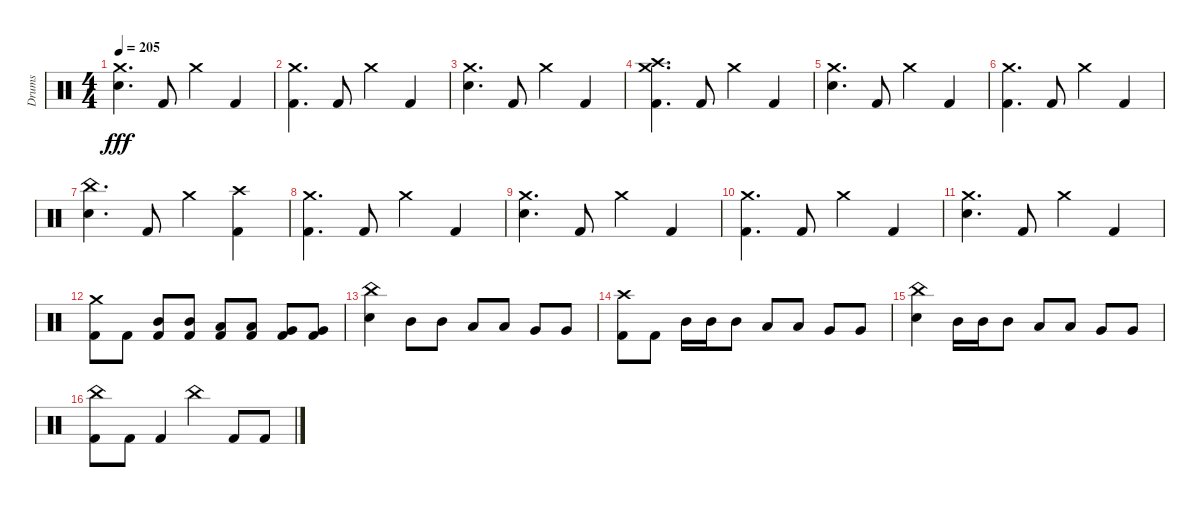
\track ("Drums" "Drums") {instrument percussion}
\staff {score}
\articulation defaults
\ts (4 4)
\tempo 205
\clef neutral
\ks c
("Crash medium (hit)" "Snare (hit) 2").4{d dy fff} "Kick (hit) 2".8 "Crash medium (hit)".4 "Kick (hit) 2".4 |
("Crash medium (hit)" "Kick (hit) 2").4{d} "Kick (hit) 2".8 "Crash medium (hit)".4 "Kick (hit) 2".4 |
("Crash medium (hit)" "Snare (hit) 2").4{d} "Kick (hit) 2".8 "Crash medium (hit)".4 "Kick (hit) 2".4 |
("Crash medium (hit)" "Crash high (hit)" "Kick (hit) 2").4{d} "Kick (hit) 2".8 "Crash medium (hit)".4 "Kick (hit) 2".4 |
("Crash medium (hit)" "Snare (hit) 2").4{d} "Kick (hit) 2".8 "Crash medium (hit)".4 "Kick (hit) 2".4 |
("Crash medium (hit)" "Kick (hit) 2").4{d} "Kick (hit) 2".8 "Crash medium (hit)".4 "Kick (hit) 2".4 |
("China (hit)" "Snare (hit) 2").4{d} "Kick (hit) 2".8 "Crash medium (hit)".4 ("Crash high (hit)" "Kick (hit) 2").4 |
("Crash medium (hit)" "Kick (hit) 2").4{d} "Kick (hit) 2".8 "Crash medium (hit)".4 "Kick (hit) 2".4 |
("Crash medium (hit)" "Snare (hit) 2").4{d} "Kick (hit) 2".8 "Crash medium (hit)".4 "Kick (hit) 2".4 |
("Crash medium (hit)" "Kick (hit) 2").4{d} "Kick (hit) 2".8 "Crash medium (hit)".4 "Kick (hit) 2".4 |
("Crash medium (hit)" "Snare (hit) 2").4{d} "Kick (hit) 2".8 "Crash medium (hit)".4 "Kick (hit) 2".4 |
("Crash medium (hit)" "Kick (hit) 2").8 "Kick (hit) 2".8 ("Mid Tom (hit)" "Kick (hit) 2").8 ("Mid Tom (hit)" "Kick (hit) 2").8 ("Low Tom (hit)" "Kick (hit) 2").8 ("Low Tom (hit)" "Kick (hit) 2").8 ("Very Low Tom (hit)" "Kick (hit) 2").8 ("Very Low Tom (hit)" "Kick (hit) 2").8 |
("China (hit)" "Snare (hit) 2").4 "Mid Tom (hit)".8 "Mid Tom (hit)".8 "Low Tom (hit)".8 "Low Tom (hit)".8 "Very Low Tom (hit)".8 "Very Low Tom (hit)".8 |
("Crash high (hit)" "Kick (hit) 2").8 "Kick (hit) 2".8 "Mid Tom (hit)".16 "Mid Tom (hit)".16 "Mid Tom (hit)".8 "Low Tom (hit)".8 "Low Tom (hit)".8 "Very Low Tom (hit)".8 "Very Low Tom (hit)".8 |
("China (hit)" "Snare (hit) 2").4 "Mid Tom (hit)".16 "Mid Tom (hit)".16 "Mid Tom (hit)".8 "Low Tom (hit)".8 "Low Tom (hit)".8 "Very Low Tom (hit)".8 "Very Low Tom (hit)".8 |
("China (hit)" "Kick (hit) 2").8 "Kick (hit) 2".8 "Kick (hit) 2".4 "China (hit)".4 "Kick (hit) 2".8 "Kick (hit) 2".8
